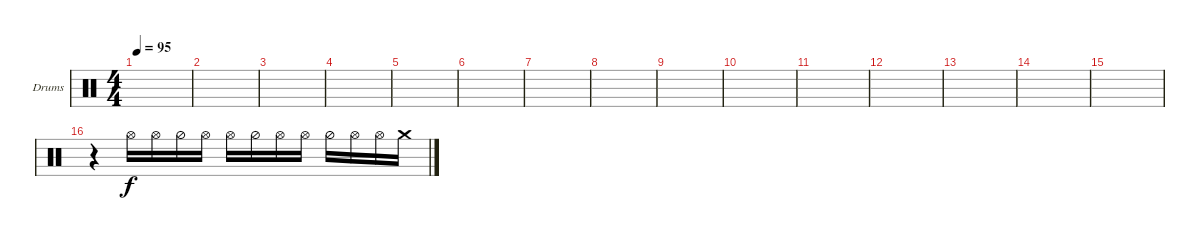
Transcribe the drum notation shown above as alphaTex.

\defaultSystemsLayout 4
\bracketExtendMode groupsimilarinstruments
\firstSystemTrackNameOrientation horizontal
\otherSystemsTrackNameOrientation horizontal
\track ("Drumkit" "Drums") {instrument percussion}
\staff {score}
\articulation defaults
\ts (4 4)
\tempo 95
\clef neutral
\scale
0.333333
\ks c
|
\scale
0.333333 |
\scale
0.333333 |
\scale
0.333333 |
\scale
0.333333 |
\scale
0.333333 |
\scale
0.333333 |
\scale
0.333333 |
\scale
0.333333 |
\scale
0.333333 |
\scale
0.333333 |
\scale
0.333333 |
\scale
0.333333 |
\scale
0.333333 |
\scale
0.333333 |
r.4 "Hi-Hat (open)".16 "Hi-Hat (open)".16 "Hi-Hat (half)".16 "Hi-Hat (open)".16 "Hi-Hat (open)".16 "Hi-Hat (half)".16 "Hi-Hat (open)".16 "Hi-Hat (open)".16 "Hi-Hat (half)".16 "Hi-Hat (open)".16 "Hi-Hat (open)".16 "Crash medium (hit)".16
